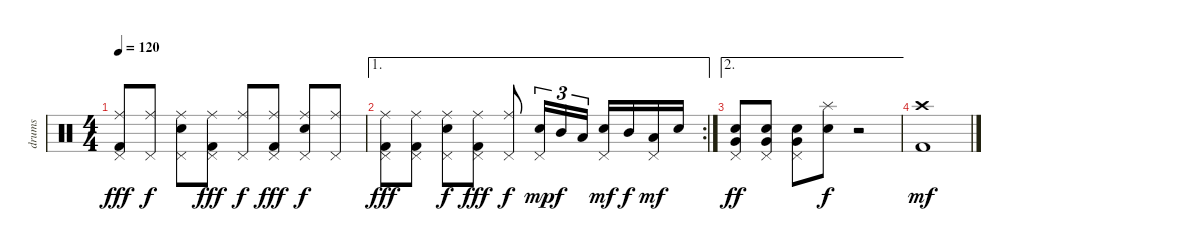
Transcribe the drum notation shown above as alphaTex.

\track ("drums" "drums") {instrument percussion}
\staff {score}
\articulation defaults
\ts (4 4)
\tempo 120
\clef neutral
\ks c
("Ride (middle)" "Pedal Hi-Hat (hit)" "Kick (hit) 2").8{dy fff} ("Ride (middle)" "Pedal Hi-Hat (hit)").8{dy f} ("Ride (middle)" "Pedal Hi-Hat (hit)" "Electric Snare (hit)").8 ("Ride (middle)" "Pedal Hi-Hat (hit)" "Kick (hit) 2").8{dy fff} ("Ride (middle)" "Pedal Hi-Hat (hit)").8{dy f} ("Ride (middle)" "Pedal Hi-Hat (hit)" "Kick (hit) 2").8{dy fff} ("Ride (middle)" "Pedal Hi-Hat (hit)" "Electric Snare (hit)").8{dy f} ("Ride (middle)" "Pedal Hi-Hat (hit)").8 |
\ae 1
\rc 2
("Ride (middle)" "Pedal Hi-Hat (hit)" "Kick (hit) 2").8{dy fff} ("Ride (middle)" "Pedal Hi-Hat (hit)" "Kick (hit) 2").8 ("Ride (middle)" "Pedal Hi-Hat (hit)" "Electric Snare (hit)").8{dy f} ("Ride (middle)" "Pedal Hi-Hat (hit)" "Kick (hit) 2").8{dy fff} ("Ride (middle)" "Pedal Hi-Hat (hit)").8{dy f} ("Pedal Hi-Hat (hit)" "Electric Snare (hit)").16{tu (3 2) dy mp} "Mid Tom (hit)".16{tu (3 2) dy f} "Low Tom (hit)".16{tu (3 2)} ("Pedal Hi-Hat (hit)" "Electric Snare (hit)").16{dy mf} "Mid Tom (hit)".16{dy f} ("Pedal Hi-Hat (hit)" "Low Tom (hit)").16{dy mf} "Electric Snare (hit)".16 |
\ae 2
("Pedal Hi-Hat (hit)" "Electric Snare (hit)" "Very Low Tom (hit)").8{dy ff} ("Pedal Hi-Hat (hit)" "Electric Snare (hit)" "Very Low Tom (hit)").8 ("Pedal Hi-Hat (hit)" "Electric Snare (hit)" "Very Low Tom (hit)").8 ("Splash (hit)" "Electric Snare (hit)").8{dy f} r.2 |
("Crash high (hit)" "Kick (hit) 2").1{dy mf}
